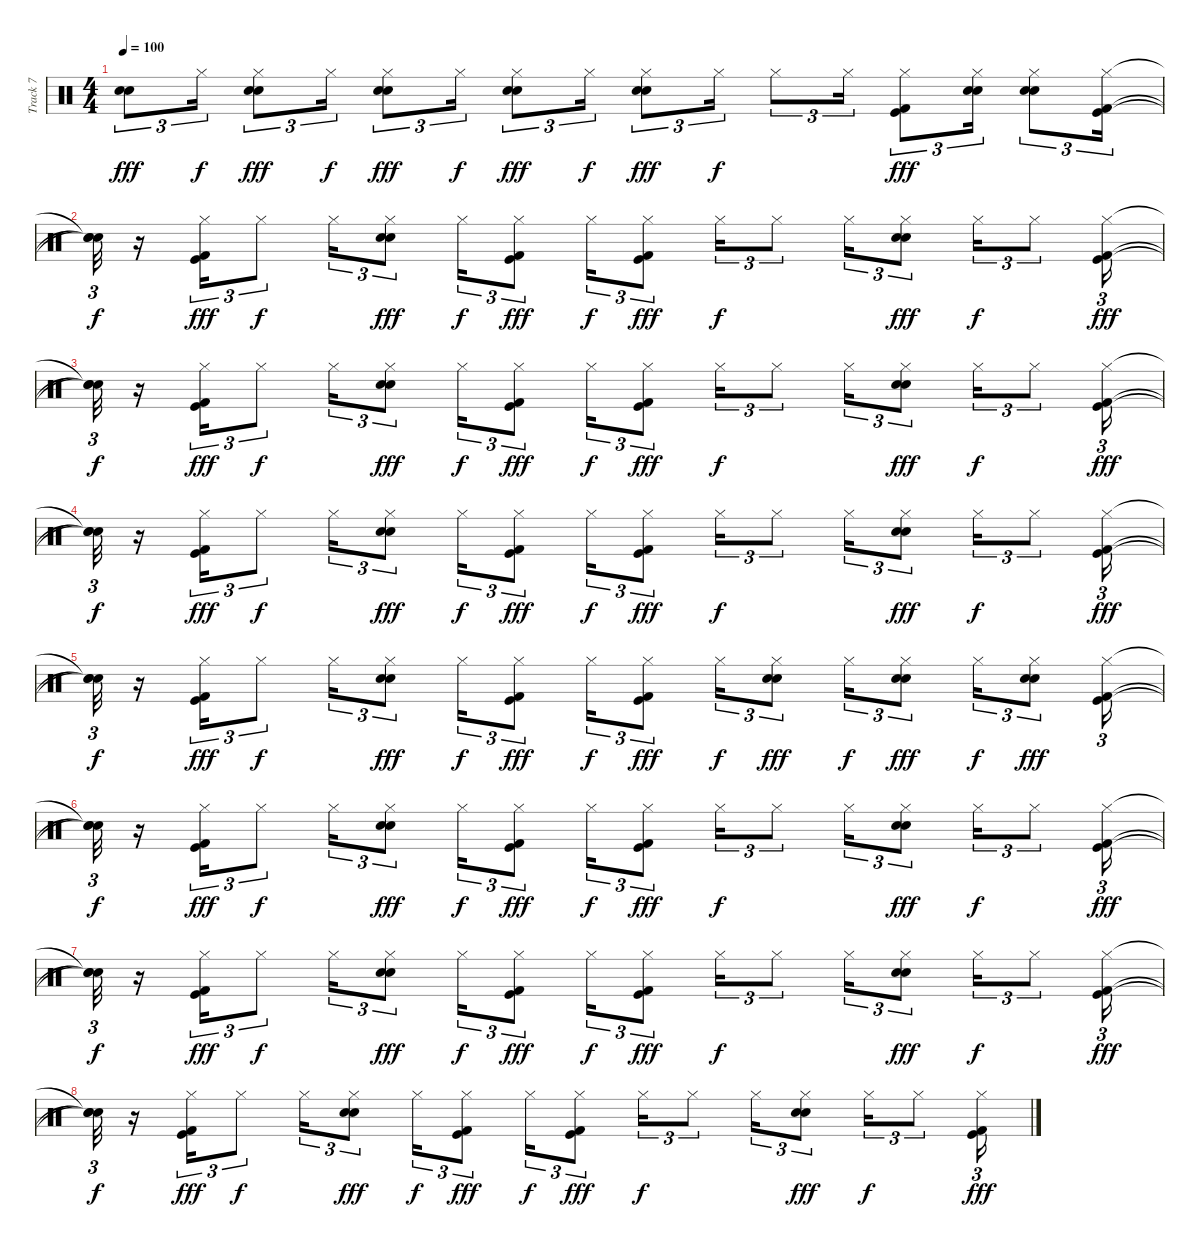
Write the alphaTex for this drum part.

\track ("Track 7" "Track 7") {instrument percussion}
\staff {score}
\articulation defaults
\ts (4 4)
\tempo 100
\clef neutral
\ks c
("Snare (hit) 2" "Electric Snare (hit)").8{tu (3 2) dy fff} "Hi-Hat (closed)".16{tu (3 2) dy f} ("Snare (hit) 2" "Electric Snare (hit)" "Hi-Hat (closed)").8{tu (3 2) dy fff} "Hi-Hat (closed)".16{tu (3 2) dy f} ("Hi-Hat (closed)" "Snare (hit) 2" "Electric Snare (hit)").8{tu (3 2) dy fff} "Hi-Hat (closed)".16{tu (3 2) dy f} ("Snare (hit) 2" "Electric Snare (hit)" "Hi-Hat (closed)").8{tu (3 2) dy fff} "Hi-Hat (closed)".16{tu (3 2) dy f} ("Electric Snare (hit)" "Snare (hit) 2" "Hi-Hat (closed)").8{tu (3 2) dy fff} "Hi-Hat (closed)".16{tu (3 2) dy f} "Hi-Hat (closed)".8{tu (3 2)} "Hi-Hat (closed)".16{tu (3 2)} ("Kick (hit)" "Kick (hit) 2" "Hi-Hat (closed)").8{tu (3 2) dy fff} ("Snare (hit) 2" "Electric Snare (hit)" "Hi-Hat (closed)").16{tu (3 2)} ("Snare (hit) 2" "Electric Snare (hit)" "Hi-Hat (closed)").8{tu (3 2)} ("Hi-Hat (closed)" "Kick (hit)" "Kick (hit) 2").16{tu (3 2)} |
("Snare (hit)"{t} "Snare (hit)"{t} "Snare (hit)"{t}).32{tu (3 2) dy f} r.16 ("Hi-Hat (closed)" "Kick (hit)" "Kick (hit) 2").16{tu (3 2) dy fff} "Hi-Hat (closed)".8{tu (3 2) dy f} "Hi-Hat (closed)".16{tu (3 2)} ("Hi-Hat (closed)" "Snare (hit) 2" "Electric Snare (hit)").8{tu (3 2) dy fff} "Hi-Hat (closed)".16{tu (3 2) dy f} ("Hi-Hat (closed)" "Kick (hit)" "Kick (hit) 2").8{tu (3 2) dy fff} "Hi-Hat (closed)".16{tu (3 2) dy f} ("Hi-Hat (closed)" "Kick (hit)" "Kick (hit) 2").8{tu (3 2) dy fff} "Hi-Hat (closed)".16{tu (3 2) dy f} "Hi-Hat (closed)".8{tu (3 2)} "Hi-Hat (closed)".16{tu (3 2)} ("Hi-Hat (closed)" "Snare (hit) 2" "Electric Snare (hit)").8{tu (3 2) dy fff} "Hi-Hat (closed)".16{tu (3 2) dy f} "Hi-Hat (closed)".8{tu (3 2)} ("Hi-Hat (closed)" "Kick (hit)" "Kick (hit) 2").16{tu (3 2) dy fff} |
("Snare (hit)"{t} "Snare (hit)"{t} "Snare (hit)"{t}).32{tu (3 2) dy f} r.16 ("Hi-Hat (closed)" "Kick (hit)" "Kick (hit) 2").16{tu (3 2) dy fff} "Hi-Hat (closed)".8{tu (3 2) dy f} "Hi-Hat (closed)".16{tu (3 2)} ("Hi-Hat (closed)" "Snare (hit) 2" "Electric Snare (hit)").8{tu (3 2) dy fff} "Hi-Hat (closed)".16{tu (3 2) dy f} ("Hi-Hat (closed)" "Kick (hit)" "Kick (hit) 2").8{tu (3 2) dy fff} "Hi-Hat (closed)".16{tu (3 2) dy f} ("Hi-Hat (closed)" "Kick (hit)" "Kick (hit) 2").8{tu (3 2) dy fff} "Hi-Hat (closed)".16{tu (3 2) dy f} "Hi-Hat (closed)".8{tu (3 2)} "Hi-Hat (closed)".16{tu (3 2)} ("Hi-Hat (closed)" "Snare (hit) 2" "Electric Snare (hit)").8{tu (3 2) dy fff} "Hi-Hat (closed)".16{tu (3 2) dy f} "Hi-Hat (closed)".8{tu (3 2)} ("Hi-Hat (closed)" "Kick (hit)" "Kick (hit) 2").16{tu (3 2) dy fff} |
("Snare (hit)"{t} "Snare (hit)"{t} "Snare (hit)"{t}).32{tu (3 2) dy f} r.16 ("Hi-Hat (closed)" "Kick (hit)" "Kick (hit) 2").16{tu (3 2) dy fff} "Hi-Hat (closed)".8{tu (3 2) dy f} "Hi-Hat (closed)".16{tu (3 2)} ("Hi-Hat (closed)" "Snare (hit) 2" "Electric Snare (hit)").8{tu (3 2) dy fff} "Hi-Hat (closed)".16{tu (3 2) dy f} ("Hi-Hat (closed)" "Kick (hit)" "Kick (hit) 2").8{tu (3 2) dy fff} "Hi-Hat (closed)".16{tu (3 2) dy f} ("Hi-Hat (closed)" "Kick (hit)" "Kick (hit) 2").8{tu (3 2) dy fff} "Hi-Hat (closed)".16{tu (3 2) dy f} "Hi-Hat (closed)".8{tu (3 2)} "Hi-Hat (closed)".16{tu (3 2)} ("Hi-Hat (closed)" "Snare (hit) 2" "Electric Snare (hit)").8{tu (3 2) dy fff} "Hi-Hat (closed)".16{tu (3 2) dy f} "Hi-Hat (closed)".8{tu (3 2)} ("Hi-Hat (closed)" "Kick (hit)" "Kick (hit) 2").16{tu (3 2) dy fff} |
("Snare (hit)"{t} "Snare (hit)"{t} "Snare (hit)"{t}).32{tu (3 2) dy f} r.16 ("Hi-Hat (closed)" "Kick (hit)" "Kick (hit) 2").16{tu (3 2) dy fff} "Hi-Hat (closed)".8{tu (3 2) dy f} "Hi-Hat (closed)".16{tu (3 2)} ("Hi-Hat (closed)" "Snare (hit) 2" "Electric Snare (hit)").8{tu (3 2) dy fff} "Hi-Hat (closed)".16{tu (3 2) dy f} ("Hi-Hat (closed)" "Kick (hit)" "Kick (hit) 2").8{tu (3 2) dy fff} "Hi-Hat (closed)".16{tu (3 2) dy f} ("Hi-Hat (closed)" "Kick (hit)" "Kick (hit) 2").8{tu (3 2) dy fff} "Hi-Hat (closed)".16{tu (3 2) dy f} ("Snare (hit) 2" "Electric Snare (hit)" "Hi-Hat (closed)").8{tu (3 2) dy fff} "Hi-Hat (closed)".16{tu (3 2) dy f} ("Hi-Hat (closed)" "Snare (hit) 2" "Electric Snare (hit)").8{tu (3 2) dy fff} "Hi-Hat (closed)".16{tu (3 2) dy f} ("Snare (hit) 2" "Electric Snare (hit)" "Hi-Hat (closed)").8{tu (3 2) dy fff} ("Hi-Hat (closed)" "Kick (hit)" "Kick (hit) 2").16{tu (3 2)} |
("Snare (hit)"{t} "Snare (hit)"{t} "Snare (hit)"{t}).32{tu (3 2) dy f} r.16 ("Hi-Hat (closed)" "Kick (hit)" "Kick (hit) 2").16{tu (3 2) dy fff} "Hi-Hat (closed)".8{tu (3 2) dy f} "Hi-Hat (closed)".16{tu (3 2)} ("Hi-Hat (closed)" "Snare (hit) 2" "Electric Snare (hit)").8{tu (3 2) dy fff} "Hi-Hat (closed)".16{tu (3 2) dy f} ("Hi-Hat (closed)" "Kick (hit)" "Kick (hit) 2").8{tu (3 2) dy fff} "Hi-Hat (closed)".16{tu (3 2) dy f} ("Hi-Hat (closed)" "Kick (hit)" "Kick (hit) 2").8{tu (3 2) dy fff} "Hi-Hat (closed)".16{tu (3 2) dy f} "Hi-Hat (closed)".8{tu (3 2)} "Hi-Hat (closed)".16{tu (3 2)} ("Hi-Hat (closed)" "Snare (hit) 2" "Electric Snare (hit)").8{tu (3 2) dy fff} "Hi-Hat (closed)".16{tu (3 2) dy f} "Hi-Hat (closed)".8{tu (3 2)} ("Hi-Hat (closed)" "Kick (hit)" "Kick (hit) 2").16{tu (3 2) dy fff} |
("Snare (hit)"{t} "Snare (hit)"{t} "Snare (hit)"{t}).32{tu (3 2) dy f} r.16 ("Hi-Hat (closed)" "Kick (hit)" "Kick (hit) 2").16{tu (3 2) dy fff} "Hi-Hat (closed)".8{tu (3 2) dy f} "Hi-Hat (closed)".16{tu (3 2)} ("Hi-Hat (closed)" "Snare (hit) 2" "Electric Snare (hit)").8{tu (3 2) dy fff} "Hi-Hat (closed)".16{tu (3 2) dy f} ("Hi-Hat (closed)" "Kick (hit)" "Kick (hit) 2").8{tu (3 2) dy fff} "Hi-Hat (closed)".16{tu (3 2) dy f} ("Hi-Hat (closed)" "Kick (hit)" "Kick (hit) 2").8{tu (3 2) dy fff} "Hi-Hat (closed)".16{tu (3 2) dy f} "Hi-Hat (closed)".8{tu (3 2)} "Hi-Hat (closed)".16{tu (3 2)} ("Hi-Hat (closed)" "Snare (hit) 2" "Electric Snare (hit)").8{tu (3 2) dy fff} "Hi-Hat (closed)".16{tu (3 2) dy f} "Hi-Hat (closed)".8{tu (3 2)} ("Hi-Hat (closed)" "Kick (hit)" "Kick (hit) 2").16{tu (3 2) dy fff} |
("Snare (hit)"{t} "Snare (hit)"{t} "Snare (hit)"{t}).32{tu (3 2) dy f} r.16 ("Hi-Hat (closed)" "Kick (hit)" "Kick (hit) 2").16{tu (3 2) dy fff} "Hi-Hat (closed)".8{tu (3 2) dy f} "Hi-Hat (closed)".16{tu (3 2)} ("Hi-Hat (closed)" "Snare (hit) 2" "Electric Snare (hit)").8{tu (3 2) dy fff} "Hi-Hat (closed)".16{tu (3 2) dy f} ("Hi-Hat (closed)" "Kick (hit)" "Kick (hit) 2").8{tu (3 2) dy fff} "Hi-Hat (closed)".16{tu (3 2) dy f} ("Hi-Hat (closed)" "Kick (hit)" "Kick (hit) 2").8{tu (3 2) dy fff} "Hi-Hat (closed)".16{tu (3 2) dy f} "Hi-Hat (closed)".8{tu (3 2)} "Hi-Hat (closed)".16{tu (3 2)} ("Hi-Hat (closed)" "Snare (hit) 2" "Electric Snare (hit)").8{tu (3 2) dy fff} "Hi-Hat (closed)".16{tu (3 2) dy f} "Hi-Hat (closed)".8{tu (3 2)} ("Kick (hit)" "Kick (hit) 2" "Hi-Hat (closed)").16{tu (3 2) dy fff}
